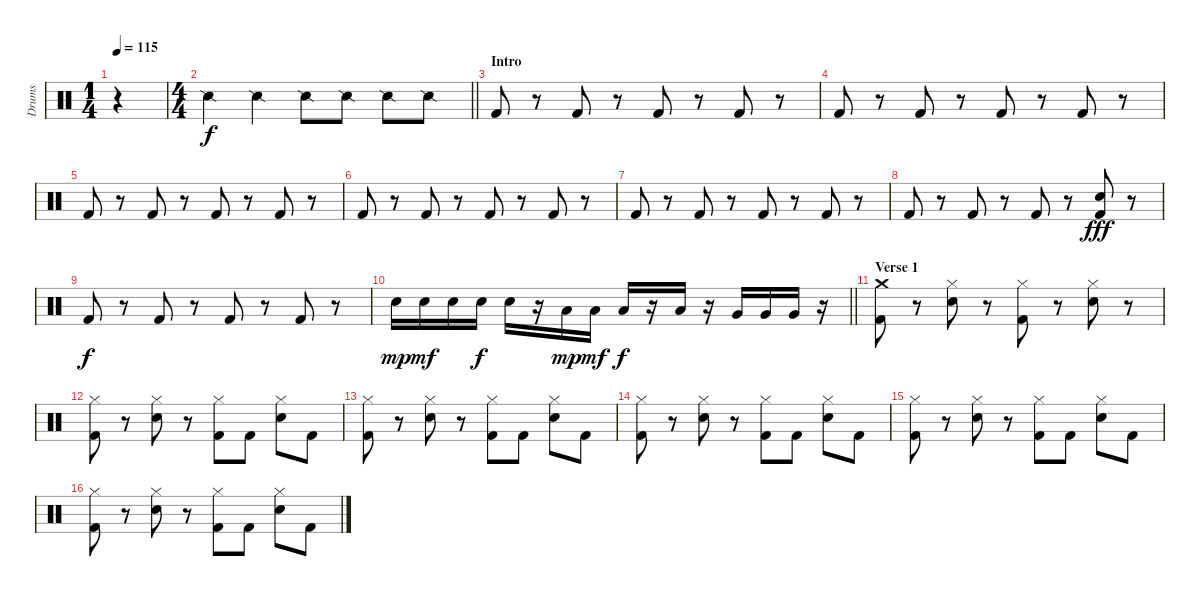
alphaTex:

\track ("Drums" "Drums") {instrument percussion}
\staff {score}
\articulation defaults
\ts (1 4)
\tempo 115
\clef neutral
\ks c
r.4{dy f} |
\ts (4 4)
\barLineRight lightlight "Snare (side stick) 2".4 "Snare (side stick) 2".4 "Snare (side stick) 2".8 "Snare (side stick) 2".8 "Snare (side stick) 2".8 "Snare (side stick) 2".8
|
\section ("" "Intro")
"Kick (hit) 2".8 r.8 "Kick (hit) 2".8 r.8 "Kick (hit) 2".8 r.8 "Kick (hit) 2".8 r.8 |
"Kick (hit) 2".8 r.8 "Kick (hit) 2".8 r.8 "Kick (hit) 2".8 r.8 "Kick (hit) 2".8 r.8 |
"Kick (hit) 2".8 r.8 "Kick (hit) 2".8 r.8 "Kick (hit) 2".8 r.8 "Kick (hit) 2".8 r.8 |
"Kick (hit) 2".8 r.8 "Kick (hit) 2".8 r.8 "Kick (hit) 2".8 r.8 "Kick (hit) 2".8 r.8 |
"Kick (hit) 2".8 r.8 "Kick (hit) 2".8 r.8 "Kick (hit) 2".8 r.8 "Kick (hit) 2".8 r.8 |
"Kick (hit) 2".8 r.8 "Kick (hit) 2".8 r.8 "Kick (hit) 2".8 r.8 ("Snare (hit) 2" "Kick (hit) 2").8{dy fff} r.8 |
"Kick (hit) 2".8{dy f} r.8 "Kick (hit) 2".8 r.8 "Kick (hit) 2".8 r.8 "Kick (hit) 2".8 r.8 |
\barLineRight lightlight "Snare (hit) 2".16{dy mp} "Snare (hit) 2".16{dy mf} "Snare (hit) 2".16 "Snare (hit) 2".16{dy f} "Snare (hit) 2".16
r.16 "Low Tom (hit)".16{dy mp} "Low Tom (hit)".16{dy mf} "Low Tom (hit)".16{dy f} r.16 "Low Tom (hit)".16 r.16 "Very Low Tom (hit)".16 "Very Low Tom (hit)".16 "Very Low Tom (hit)".16 r.16 |
\section ("" "Verse 1")
("Crash medium (hit)" "Kick (hit) 2").8 r.8 ("Hi-Hat (closed)" "Snare (hit) 2").8 r.8 ("Hi-Hat (closed)" "Kick (hit) 2").8 r.8 ("Hi-Hat (closed)" "Snare (hit) 2").8 r.8 |
("Hi-Hat (closed)" "Kick (hit) 2").8 r.8 ("Hi-Hat (closed)" "Snare (hit) 2").8 r.8 ("Hi-Hat (closed)" "Kick (hit) 2").8 "Kick (hit) 2".8 ("Hi-Hat (closed)" "Snare (hit) 2").8 "Kick (hit) 2".8 |
("Hi-Hat (closed)" "Kick (hit) 2").8 r.8 ("Hi-Hat (closed)" "Snare (hit) 2").8 r.8 ("Hi-Hat (closed)" "Kick (hit) 2").8 "Kick (hit) 2".8 ("Hi-Hat (closed)" "Snare (hit) 2").8 "Kick (hit) 2".8 |
("Hi-Hat (closed)" "Kick (hit) 2").8 r.8 ("Hi-Hat (closed)" "Snare (hit) 2").8 r.8 ("Hi-Hat (closed)" "Kick (hit) 2").8 "Kick (hit) 2".8 ("Hi-Hat (closed)" "Snare (hit) 2").8 "Kick (hit) 2".8 |
("Hi-Hat (closed)" "Kick (hit) 2").8 r.8 ("Hi-Hat (closed)" "Snare (hit) 2").8 r.8 ("Hi-Hat (closed)" "Kick (hit) 2").8 "Kick (hit) 2".8 ("Hi-Hat (closed)" "Snare (hit) 2").8 "Kick (hit) 2".8 |
("Hi-Hat (closed)" "Kick (hit) 2").8 r.8 ("Hi-Hat (closed)" "Snare (hit) 2").8 r.8 ("Hi-Hat (closed)" "Kick (hit) 2").8 "Kick (hit) 2".8 ("Hi-Hat (closed)" "Snare (hit) 2").8 "Kick (hit) 2".8
